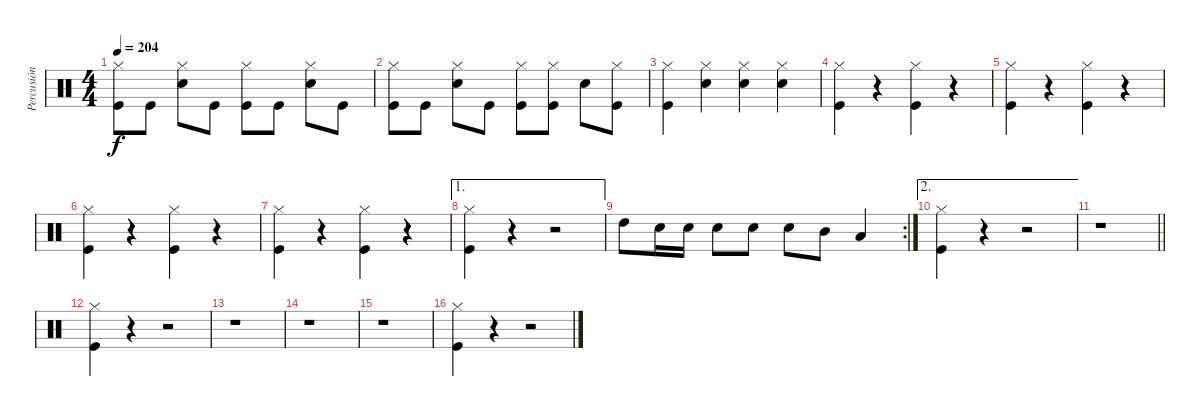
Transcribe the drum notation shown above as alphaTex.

\track ("Percusión" "Percusión") {instrument percussion}
\staff {score}
\articulation defaults
\ts (4 4)
\tempo 204
\clef neutral
\ks c
("Hi-Hat (closed)" "Kick (hit)").8{dy f} "Kick (hit)".8 ("Hi-Hat (closed)" "Snare (hit) 2").8 "Kick (hit)".8 ("Hi-Hat (closed)" "Kick (hit)").8 "Kick (hit)".8 ("Hi-Hat (closed)" "Snare (hit) 2").8 "Kick (hit)".8 |
("Hi-Hat (closed)" "Kick (hit)").8 "Kick (hit)".8 ("Hi-Hat (closed)" "Snare (hit) 2").8 "Kick (hit)".8 ("Hi-Hat (closed)" "Kick (hit)").8 ("Hi-Hat (closed)" "Kick (hit)").8 "Snare (hit) 2".8 ("Hi-Hat (closed)" "Kick (hit)").8 |
("Hi-Hat (closed)" "Kick (hit)").4 ("Hi-Hat (closed)" "Snare (hit) 2").4 ("Hi-Hat (closed)" "Snare (hit) 2").4 ("Hi-Hat (closed)" "Snare (hit) 2").4 |
("Hi-Hat (closed)" "Kick (hit)").4 r.4 ("Hi-Hat (closed)" "Kick (hit)").4 r.4 |
("Hi-Hat (closed)" "Kick (hit)").4 r.4 ("Hi-Hat (closed)" "Kick (hit)").4 r.4 |
("Hi-Hat (closed)" "Kick (hit)").4 r.4 ("Hi-Hat (closed)" "Kick (hit)").4 r.4 |
("Hi-Hat (closed)" "Kick (hit)").4 r.4 ("Hi-Hat (closed)" "Kick (hit)").4 r.4 |
\ae 1
("Hi-Hat (closed)" "Kick (hit)").4 r.4 r.2 |
\rc 2 "High Tom (hit)".8 "Snare (hit) 2".16 "Snare (hit) 2".16 "Snare (hit) 2".8 "Snare (hit) 2".8 "Snare (hit) 2".8 "Mid Tom (hit)".8 "Low Tom (hit)".4
|
\ae 2
("Hi-Hat (closed)" "Kick (hit)").4 r.4 r.2 |
\barLineRight lightlight
r.1 |
("Hi-Hat (closed)" "Kick (hit)").4 r.4 r.2 |
r.1 |
r.1 |
r.1 |
("Hi-Hat (closed)" "Kick (hit)").4 r.4 r.2
